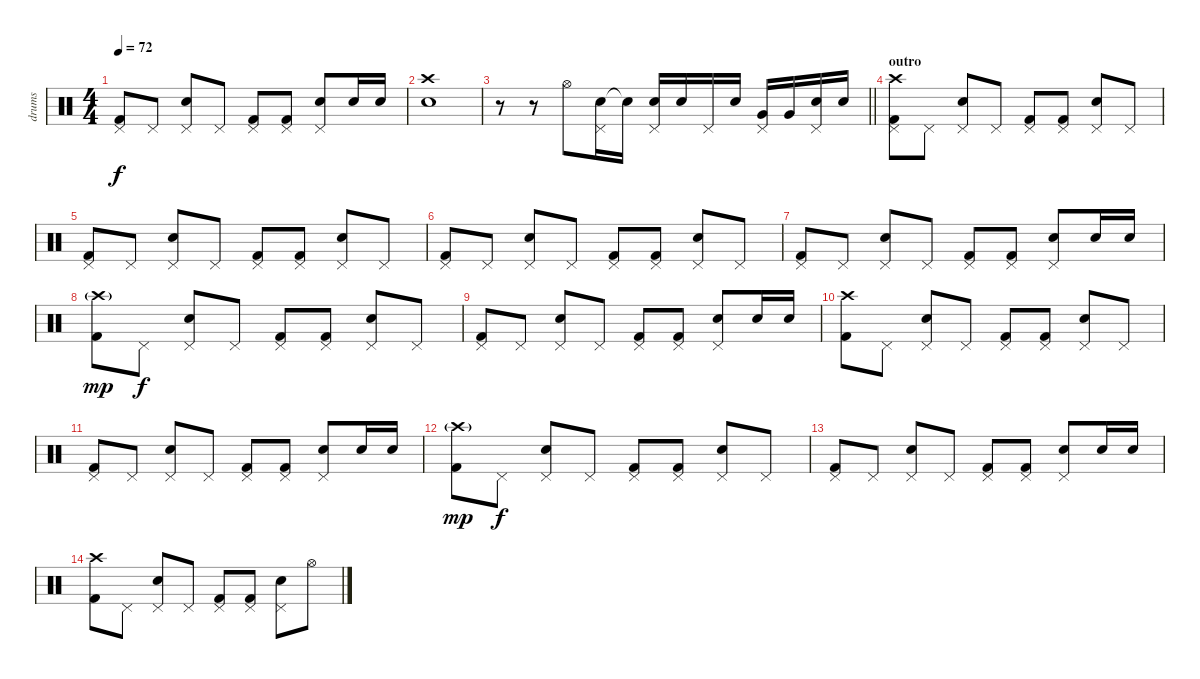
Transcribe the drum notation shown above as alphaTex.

\track ("drums" "drums") {instrument percussion}
\staff {score}
\articulation defaults
\ts (4 4)
\tempo 72
\clef neutral
\ks c
("Kick (hit) 2" "Pedal Hi-Hat (hit)").8{dy f} "Pedal Hi-Hat (hit)".8 ("Electric Snare (hit)" "Pedal Hi-Hat (hit)").8 "Pedal Hi-Hat (hit)".8 ("Kick (hit) 2" "Pedal Hi-Hat (hit)").8 ("Kick (hit) 2" "Pedal Hi-Hat (hit)").8 ("Electric Snare (hit)" "Pedal Hi-Hat (hit)").8 "Electric Snare (hit)".16 "Electric Snare (hit)".16 |
("Electric Snare (hit)" "Crash high (hit)").1 |
\barLineRight lightlight
r.8 r.8 "Hi-Hat (open)".8 ("Electric Snare (hit)" "Pedal Hi-Hat (hit)").16 "Electric Snare (hit)"{t}.16 ("Electric Snare (hit)" "Pedal Hi-Hat (hit)").16 "Electric Snare (hit)".16 "Pedal Hi-Hat (hit)".16 "Electric Snare (hit)".16 ("Very Low Tom (hit)" "Pedal Hi-Hat (hit)").16 "Very Low Tom (hit)".16 ("Electric Snare (hit)" "Pedal Hi-Hat (hit)").16 "Electric Snare (hit)".16 |
\section ("" "outro")
("Kick (hit) 2" "Pedal Hi-Hat (hit)" "Crash high (hit)").8 "Pedal Hi-Hat (hit)".8 ("Electric Snare (hit)" "Pedal Hi-Hat (hit)").8 "Pedal Hi-Hat (hit)".8 ("Kick (hit) 2" "Pedal Hi-Hat (hit)").8 ("Kick (hit) 2" "Pedal Hi-Hat (hit)").8 ("Electric Snare (hit)" "Pedal Hi-Hat (hit)").8 "Pedal Hi-Hat (hit)".8 |
("Kick (hit) 2" "Pedal Hi-Hat (hit)").8 "Pedal Hi-Hat (hit)".8 ("Electric Snare (hit)" "Pedal Hi-Hat (hit)").8 "Pedal Hi-Hat (hit)".8 ("Kick (hit) 2" "Pedal Hi-Hat (hit)").8 ("Kick (hit) 2" "Pedal Hi-Hat (hit)").8 ("Electric Snare (hit)" "Pedal Hi-Hat (hit)").8 "Pedal Hi-Hat (hit)".8 |
("Kick (hit) 2" "Pedal Hi-Hat (hit)").8 "Pedal Hi-Hat (hit)".8 ("Electric Snare (hit)" "Pedal Hi-Hat (hit)").8 "Pedal Hi-Hat (hit)".8 ("Kick (hit) 2" "Pedal Hi-Hat (hit)").8 ("Kick (hit) 2" "Pedal Hi-Hat (hit)").8 ("Electric Snare (hit)" "Pedal Hi-Hat (hit)").8 "Pedal Hi-Hat (hit)".8 |
("Kick (hit) 2" "Pedal Hi-Hat (hit)").8 "Pedal Hi-Hat (hit)".8 ("Electric Snare (hit)" "Pedal Hi-Hat (hit)").8 "Pedal Hi-Hat (hit)".8 ("Kick (hit) 2" "Pedal Hi-Hat (hit)").8 ("Kick (hit) 2" "Pedal Hi-Hat (hit)").8 ("Electric Snare (hit)" "Pedal Hi-Hat (hit)").8 "Electric Snare (hit)".16 "Electric Snare (hit)".16 |
("Kick (hit) 2" "Crash high (hit)"{g}).8{dy mp} "Pedal Hi-Hat (hit)".8{dy f} ("Electric Snare (hit)" "Pedal Hi-Hat (hit)").8 "Pedal Hi-Hat (hit)".8 ("Kick (hit) 2" "Pedal Hi-Hat (hit)").8 ("Kick (hit) 2" "Pedal Hi-Hat (hit)").8 ("Electric Snare (hit)" "Pedal Hi-Hat (hit)").8 "Pedal Hi-Hat (hit)".8 |
("Kick (hit) 2" "Pedal Hi-Hat (hit)").8 "Pedal Hi-Hat (hit)".8 ("Electric Snare (hit)" "Pedal Hi-Hat (hit)").8 "Pedal Hi-Hat (hit)".8 ("Kick (hit) 2" "Pedal Hi-Hat (hit)").8 ("Kick (hit) 2" "Pedal Hi-Hat (hit)").8 ("Electric Snare (hit)" "Pedal Hi-Hat (hit)").8 "Electric Snare (hit)".16 "Electric Snare (hit)".16 |
("Kick (hit) 2" "Crash high (hit)").8 "Pedal Hi-Hat (hit)".8 ("Electric Snare (hit)" "Pedal Hi-Hat (hit)").8 "Pedal Hi-Hat (hit)".8 ("Kick (hit) 2" "Pedal Hi-Hat (hit)").8 ("Kick (hit) 2" "Pedal Hi-Hat (hit)").8 ("Electric Snare (hit)" "Pedal Hi-Hat (hit)").8 "Pedal Hi-Hat (hit)".8 |
("Kick (hit) 2" "Pedal Hi-Hat (hit)").8 "Pedal Hi-Hat (hit)".8 ("Electric Snare (hit)" "Pedal Hi-Hat (hit)").8 "Pedal Hi-Hat (hit)".8 ("Kick (hit) 2" "Pedal Hi-Hat (hit)").8 ("Kick (hit) 2" "Pedal Hi-Hat (hit)").8 ("Electric Snare (hit)" "Pedal Hi-Hat (hit)").8 "Electric Snare (hit)".16 "Electric Snare (hit)".16 |
("Kick (hit) 2" "Crash high (hit)"{g}).8{dy mp} "Pedal Hi-Hat (hit)".8{dy f} ("Electric Snare (hit)" "Pedal Hi-Hat (hit)").8 "Pedal Hi-Hat (hit)".8 ("Kick (hit) 2" "Pedal Hi-Hat (hit)").8 ("Kick (hit) 2" "Pedal Hi-Hat (hit)").8 ("Electric Snare (hit)" "Pedal Hi-Hat (hit)").8 "Pedal Hi-Hat (hit)".8 |
("Kick (hit) 2" "Pedal Hi-Hat (hit)").8 "Pedal Hi-Hat (hit)".8 ("Electric Snare (hit)" "Pedal Hi-Hat (hit)").8 "Pedal Hi-Hat (hit)".8 ("Kick (hit) 2" "Pedal Hi-Hat (hit)").8 ("Kick (hit) 2" "Pedal Hi-Hat (hit)").8 ("Electric Snare (hit)" "Pedal Hi-Hat (hit)").8 "Electric Snare (hit)".16 "Electric Snare (hit)".16 |
("Kick (hit) 2" "Crash high (hit)").8 "Pedal Hi-Hat (hit)".8 ("Electric Snare (hit)" "Pedal Hi-Hat (hit)").8 "Pedal Hi-Hat (hit)".8 ("Kick (hit) 2" "Pedal Hi-Hat (hit)").8 ("Kick (hit) 2" "Pedal Hi-Hat (hit)").8 ("Electric Snare (hit)" "Pedal Hi-Hat (hit)").8 "Hi-Hat (open)".8
